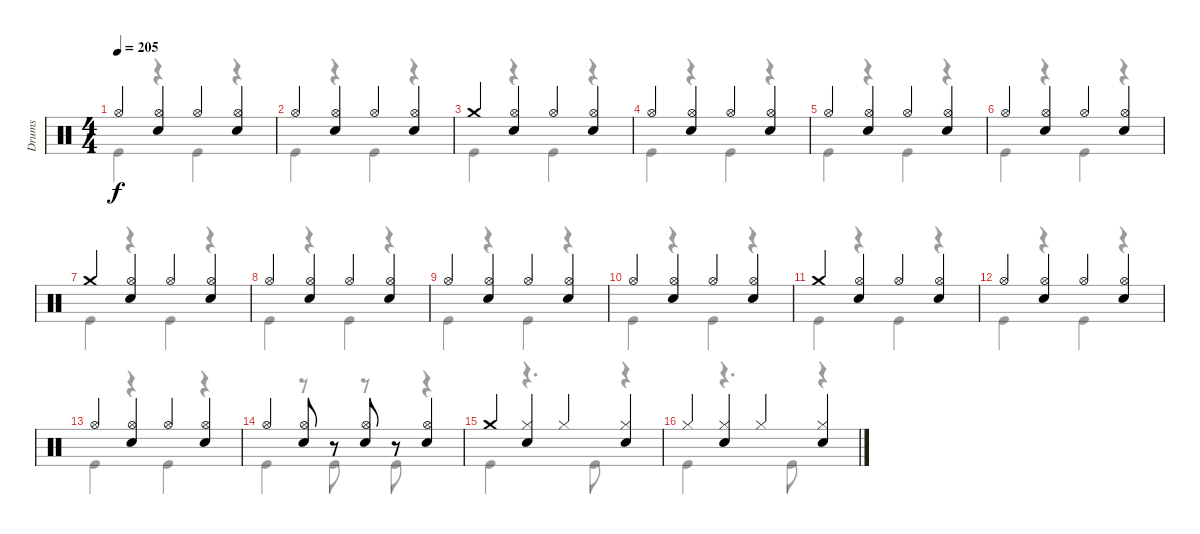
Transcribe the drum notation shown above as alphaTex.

\track ("Drums" "Drums") {instrument percussion}
\staff {score}
\articulation defaults
\voice
\ts (4 4)
\tempo 205
\clef neutral
\ks c "Hi-Hat (open)".4{dy f}
("Hi-Hat (open)" "Snare (hit) 2").4 "Hi-Hat (open)".4 ("Hi-Hat (open)" "Snare (hit) 2").4 |
"Hi-Hat (open)".4 ("Hi-Hat (open)" "Snare (hit) 2").4 "Hi-Hat (open)".4 ("Hi-Hat (open)" "Snare (hit) 2").4 |
"Crash medium (hit)".4 ("Hi-Hat (open)" "Snare (hit) 2").4 "Hi-Hat (open)".4 ("Hi-Hat (open)" "Snare (hit) 2").4 |
"Hi-Hat (open)".4 ("Hi-Hat (open)" "Snare (hit) 2").4 "Hi-Hat (open)".4 ("Hi-Hat (open)" "Snare (hit) 2").4 |
"Hi-Hat (open)".4 ("Hi-Hat (open)" "Snare (hit) 2").4 "Hi-Hat (open)".4 ("Hi-Hat (open)" "Snare (hit) 2").4 |
"Hi-Hat (open)".4 ("Hi-Hat (open)" "Snare (hit) 2").4 "Hi-Hat (open)".4 ("Hi-Hat (open)" "Snare (hit) 2").4 |
"Crash medium (hit)".4 ("Hi-Hat (open)" "Snare (hit) 2").4 "Hi-Hat (open)".4 ("Hi-Hat (open)" "Snare (hit) 2").4 |
"Hi-Hat (open)".4 ("Hi-Hat (open)" "Snare (hit) 2").4 "Hi-Hat (open)".4 ("Hi-Hat (open)" "Snare (hit) 2").4 |
"Hi-Hat (open)".4 ("Hi-Hat (open)" "Snare (hit) 2").4 "Hi-Hat (open)".4 ("Hi-Hat (open)" "Snare (hit) 2").4 |
"Hi-Hat (open)".4 ("Hi-Hat (open)" "Snare (hit) 2").4 "Hi-Hat (open)".4 ("Hi-Hat (open)" "Snare (hit) 2").4 |
"Crash medium (hit)".4 ("Hi-Hat (open)" "Snare (hit) 2").4 "Hi-Hat (open)".4 ("Hi-Hat (open)" "Snare (hit) 2").4 |
"Hi-Hat (open)".4 ("Hi-Hat (open)" "Snare (hit) 2").4 "Hi-Hat (open)".4 ("Hi-Hat (open)" "Snare (hit) 2").4 |
"Hi-Hat (open)".4 ("Hi-Hat (open)" "Snare (hit) 2").4 "Hi-Hat (open)".4 ("Hi-Hat (open)" "Snare (hit) 2").4 |
"Hi-Hat (open)".4 ("Hi-Hat (open)" "Snare (hit) 2").8 r.8 ("Hi-Hat (open)" "Snare (hit) 2").8 r.8 ("Hi-Hat (open)" "Snare (hit) 2").4 |
"Crash medium (hit)".4 ("Hi-Hat (closed)" "Snare (hit) 2").4 "Hi-Hat (closed)".4 ("Hi-Hat (closed)" "Snare (hit) 2").4 |
"Hi-Hat (closed)".4 ("Hi-Hat (closed)" "Snare (hit) 2").4 "Hi-Hat (closed)".4 ("Hi-Hat (closed)" "Snare (hit) 2").4
\voice
\clef neutral
\ottava regular
\simile none
\ks c "Kick (hit)".4{dy f}
r.4 "Kick (hit)".4 r.4 |
"Kick (hit)".4 r.4 "Kick (hit)".4 r.4 |
"Kick (hit)".4 r.4 "Kick (hit)".4 r.4 |
"Kick (hit)".4 r.4 "Kick (hit)".4 r.4 |
"Kick (hit)".4 r.4 "Kick (hit)".4 r.4 |
"Kick (hit)".4 r.4 "Kick (hit)".4 r.4 |
"Kick (hit)".4 r.4 "Kick (hit)".4 r.4 |
"Kick (hit)".4 r.4 "Kick (hit)".4 r.4 |
"Kick (hit)".4 r.4 "Kick (hit)".4 r.4 |
"Kick (hit)".4 r.4 "Kick (hit)".4 r.4 |
"Kick (hit)".4 r.4 "Kick (hit)".4 r.4 |
"Kick (hit)".4 r.4 "Kick (hit)".4 r.4 |
"Kick (hit)".4 r.4 "Kick (hit)".4 r.4 |
"Kick (hit)".4 r.8 "Kick (hit)".8 r.8 "Kick (hit)".8 r.4 |
"Kick (hit)".4 r.4{d} "Kick (hit)".8 r.4 |
"Kick (hit)".4 r.4{d} "Kick (hit)".8 r.4
